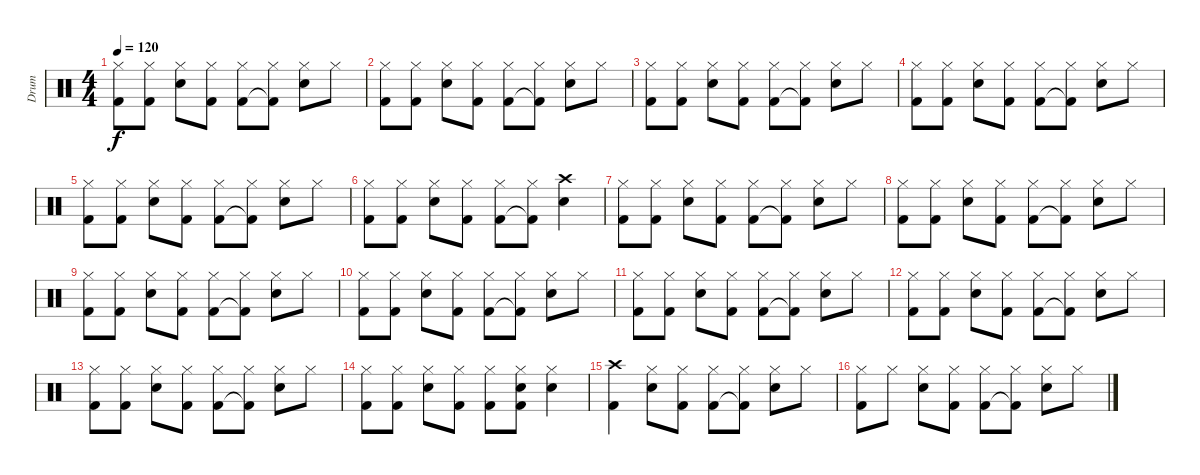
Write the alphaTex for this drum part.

\track ("Drum" "Drum") {instrument percussion}
\staff {score}
\articulation defaults
\ts (4 4)
\tempo 120
\clef neutral
\ks c
("Hi-Hat (closed)" "Kick (hit) 2").8{dy f} ("Hi-Hat (closed)" "Kick (hit) 2").8 ("Hi-Hat (closed)" "Snare (hit) 2").8 ("Hi-Hat (closed)" "Kick (hit) 2").8 ("Hi-Hat (closed)" "Kick (hit) 2").8 ("Hi-Hat (closed)" "Kick (hit) 2"{t}).8 ("Hi-Hat (closed)" "Snare (hit) 2").8 "Hi-Hat (closed)".8 |
("Hi-Hat (closed)" "Kick (hit) 2").8 ("Hi-Hat (closed)" "Kick (hit) 2").8 ("Hi-Hat (closed)" "Snare (hit) 2").8 ("Hi-Hat (closed)" "Kick (hit) 2").8 ("Hi-Hat (closed)" "Kick (hit) 2").8 ("Hi-Hat (closed)" "Kick (hit) 2"{t}).8 ("Hi-Hat (closed)" "Snare (hit) 2").8 "Hi-Hat (closed)".8 |
("Hi-Hat (closed)" "Kick (hit) 2").8 ("Hi-Hat (closed)" "Kick (hit) 2").8 ("Hi-Hat (closed)" "Snare (hit) 2").8 ("Hi-Hat (closed)" "Kick (hit) 2").8 ("Hi-Hat (closed)" "Kick (hit) 2").8 ("Hi-Hat (closed)" "Kick (hit) 2"{t}).8 ("Hi-Hat (closed)" "Snare (hit) 2").8 "Hi-Hat (closed)".8 |
("Hi-Hat (closed)" "Kick (hit) 2").8 ("Hi-Hat (closed)" "Kick (hit) 2").8 ("Hi-Hat (closed)" "Snare (hit) 2").8 ("Hi-Hat (closed)" "Kick (hit) 2").8 ("Hi-Hat (closed)" "Kick (hit) 2").8 ("Hi-Hat (closed)" "Kick (hit) 2"{t}).8 ("Hi-Hat (closed)" "Snare (hit) 2").8 "Hi-Hat (closed)".8 |
("Hi-Hat (closed)" "Kick (hit) 2").8 ("Hi-Hat (closed)" "Kick (hit) 2").8 ("Hi-Hat (closed)" "Snare (hit) 2").8 ("Hi-Hat (closed)" "Kick (hit) 2").8 ("Hi-Hat (closed)" "Kick (hit) 2").8 ("Hi-Hat (closed)" "Kick (hit) 2"{t}).8 ("Hi-Hat (closed)" "Snare (hit) 2").8 "Hi-Hat (closed)".8 |
("Hi-Hat (closed)" "Kick (hit) 2").8 ("Hi-Hat (closed)" "Kick (hit) 2").8 ("Hi-Hat (closed)" "Snare (hit) 2").8 ("Hi-Hat (closed)" "Kick (hit) 2").8 ("Hi-Hat (closed)" "Kick (hit) 2").8 ("Hi-Hat (closed)" "Kick (hit) 2"{t}).8 ("Crash high (hit)" "Snare (hit) 2").4 |
("Hi-Hat (closed)" "Kick (hit) 2").8 ("Hi-Hat (closed)" "Kick (hit) 2").8 ("Hi-Hat (closed)" "Snare (hit) 2").8 ("Hi-Hat (closed)" "Kick (hit) 2").8 ("Hi-Hat (closed)" "Kick (hit) 2").8 ("Hi-Hat (closed)" "Kick (hit) 2"{t}).8 ("Hi-Hat (closed)" "Snare (hit) 2").8 "Hi-Hat (closed)".8 |
("Hi-Hat (closed)" "Kick (hit) 2").8 ("Hi-Hat (closed)" "Kick (hit) 2").8 ("Hi-Hat (closed)" "Snare (hit) 2").8 ("Hi-Hat (closed)" "Kick (hit) 2").8 ("Hi-Hat (closed)" "Kick (hit) 2").8 ("Hi-Hat (closed)" "Kick (hit) 2"{t}).8 ("Hi-Hat (closed)" "Snare (hit) 2").8 "Hi-Hat (closed)".8 |
("Hi-Hat (closed)" "Kick (hit) 2").8 ("Hi-Hat (closed)" "Kick (hit) 2").8 ("Hi-Hat (closed)" "Snare (hit) 2").8 ("Hi-Hat (closed)" "Kick (hit) 2").8 ("Hi-Hat (closed)" "Kick (hit) 2").8 ("Hi-Hat (closed)" "Kick (hit) 2"{t}).8 ("Hi-Hat (closed)" "Snare (hit) 2").8 "Hi-Hat (closed)".8 |
("Hi-Hat (closed)" "Kick (hit) 2").8 ("Hi-Hat (closed)" "Kick (hit) 2").8 ("Hi-Hat (closed)" "Snare (hit) 2").8 ("Hi-Hat (closed)" "Kick (hit) 2").8 ("Hi-Hat (closed)" "Kick (hit) 2").8 ("Hi-Hat (closed)" "Kick (hit) 2"{t}).8 ("Hi-Hat (closed)" "Snare (hit) 2").8 "Hi-Hat (closed)".8 |
("Hi-Hat (closed)" "Kick (hit) 2").8 ("Hi-Hat (closed)" "Kick (hit) 2").8 ("Hi-Hat (closed)" "Snare (hit) 2").8 ("Hi-Hat (closed)" "Kick (hit) 2").8 ("Hi-Hat (closed)" "Kick (hit) 2").8 ("Hi-Hat (closed)" "Kick (hit) 2"{t}).8 ("Hi-Hat (closed)" "Snare (hit) 2").8 "Hi-Hat (closed)".8 |
("Hi-Hat (closed)" "Kick (hit) 2").8 ("Hi-Hat (closed)" "Kick (hit) 2").8 ("Hi-Hat (closed)" "Snare (hit) 2").8 ("Hi-Hat (closed)" "Kick (hit) 2").8 ("Hi-Hat (closed)" "Kick (hit) 2").8 ("Hi-Hat (closed)" "Kick (hit) 2"{t}).8 ("Hi-Hat (closed)" "Snare (hit) 2").8 "Hi-Hat (closed)".8 |
("Hi-Hat (closed)" "Kick (hit) 2").8 ("Hi-Hat (closed)" "Kick (hit) 2").8 ("Hi-Hat (closed)" "Snare (hit) 2").8 ("Hi-Hat (closed)" "Kick (hit) 2").8 ("Hi-Hat (closed)" "Kick (hit) 2").8 ("Hi-Hat (closed)" "Kick (hit) 2"{t}).8 ("Hi-Hat (closed)" "Snare (hit) 2").8 "Hi-Hat (closed)".8 |
("Hi-Hat (closed)" "Kick (hit) 2").8 ("Hi-Hat (closed)" "Kick (hit) 2").8 ("Hi-Hat (closed)" "Snare (hit) 2").8 ("Hi-Hat (closed)" "Kick (hit) 2").8 ("Hi-Hat (closed)" "Kick (hit) 2").8 ("Hi-Hat (closed)" "Snare (hit) 2" "Kick (hit) 2").8 ("Hi-Hat (closed)" "Snare (hit) 2").4 |
("Crash high (hit)" "Kick (hit) 2").4 ("Hi-Hat (closed)" "Snare (hit) 2").8 ("Hi-Hat (closed)" "Kick (hit) 2").8 ("Hi-Hat (closed)" "Kick (hit) 2").8 ("Hi-Hat (closed)" "Kick (hit) 2"{t}).8 ("Hi-Hat (closed)" "Snare (hit) 2").8 "Hi-Hat (closed)".8 |
("Hi-Hat (closed)" "Kick (hit) 2").8 "Hi-Hat (closed)".8 ("Hi-Hat (closed)" "Snare (hit) 2").8 ("Hi-Hat (closed)" "Kick (hit) 2").8 ("Hi-Hat (closed)" "Kick (hit) 2").8 ("Hi-Hat (closed)" "Kick (hit) 2"{t}).8 ("Hi-Hat (closed)" "Snare (hit) 2").8 "Hi-Hat (closed)".8
